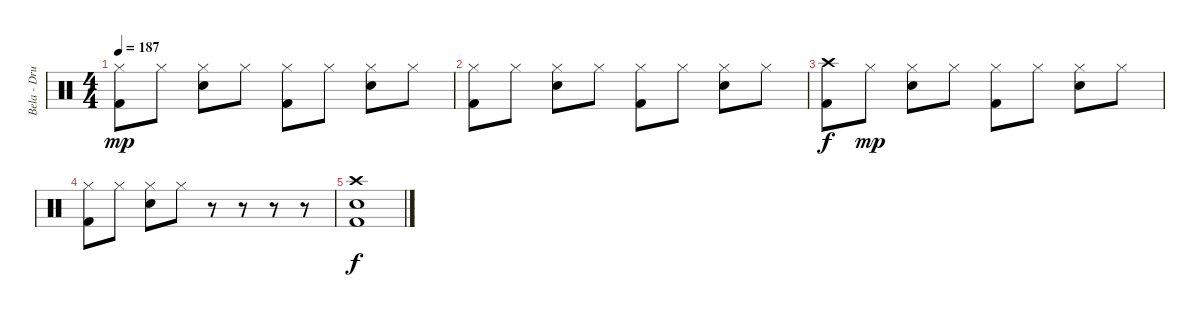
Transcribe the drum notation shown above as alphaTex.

\track ("Bela - Drums" "Bela - Dru") {instrument percussion}
\staff {score}
\articulation defaults
\ts (4 4)
\tempo 187
\clef neutral
\ks c
("Hi-Hat (closed)" "Kick (hit) 2").8{dy mp} "Hi-Hat (closed)".8 ("Hi-Hat (closed)" "Snare (hit) 2").8 "Hi-Hat (closed)".8 ("Hi-Hat (closed)" "Kick (hit) 2").8 "Hi-Hat (closed)".8 ("Hi-Hat (closed)" "Snare (hit) 2").8 "Hi-Hat (closed)".8 |
("Hi-Hat (closed)" "Kick (hit) 2").8 "Hi-Hat (closed)".8 ("Hi-Hat (closed)" "Snare (hit) 2").8 "Hi-Hat (closed)".8 ("Hi-Hat (closed)" "Kick (hit) 2").8 "Hi-Hat (closed)".8 ("Hi-Hat (closed)" "Snare (hit) 2").8 "Hi-Hat (closed)".8 |
("Crash high (hit)" "Kick (hit) 2").8{dy f} "Hi-Hat (closed)".8{dy mp} ("Hi-Hat (closed)" "Snare (hit) 2").8 "Hi-Hat (closed)".8 ("Hi-Hat (closed)" "Kick (hit) 2").8 "Hi-Hat (closed)".8 ("Hi-Hat (closed)" "Snare (hit) 2").8 "Hi-Hat (closed)".8 |
("Hi-Hat (closed)" "Kick (hit) 2").8 "Hi-Hat (closed)".8 ("Hi-Hat (closed)" "Snare (hit) 2").8 "Hi-Hat (closed)".8 r.8 r.8 r.8 r.8 |
("Crash high (hit)" "Snare (hit) 2" "Kick (hit) 2").1{dy f}
